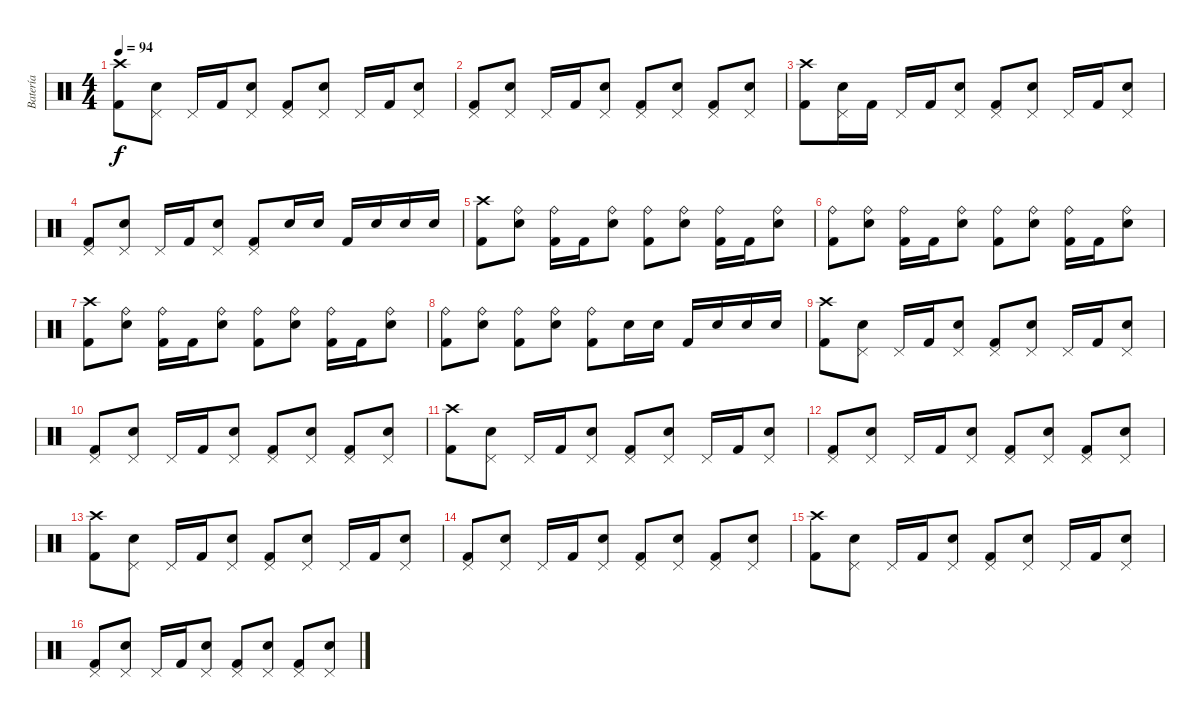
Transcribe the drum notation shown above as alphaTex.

\track ("Batería" "Batería") {instrument percussion}
\staff {score}
\articulation defaults
\ts (4 4)
\tempo 94
\clef neutral
\ks c
("Crash high (hit)" "Kick (hit) 2").8{dy f} ("Pedal Hi-Hat (hit)" "Electric Snare (hit)").8 "Pedal Hi-Hat (hit)".16 "Kick (hit) 2".16 ("Pedal Hi-Hat (hit)" "Electric Snare (hit)").8 ("Pedal Hi-Hat (hit)" "Kick (hit) 2").8 ("Pedal Hi-Hat (hit)" "Electric Snare (hit)").8 "Pedal Hi-Hat (hit)".16 "Kick (hit) 2".16 ("Pedal Hi-Hat (hit)" "Electric Snare (hit)").8 |
("Pedal Hi-Hat (hit)" "Kick (hit) 2").8 ("Pedal Hi-Hat (hit)" "Electric Snare (hit)").8 "Pedal Hi-Hat (hit)".16 "Kick (hit) 2".16 ("Pedal Hi-Hat (hit)" "Electric Snare (hit)").8 ("Pedal Hi-Hat (hit)" "Kick (hit) 2").8 ("Pedal Hi-Hat (hit)" "Electric Snare (hit)").8 ("Pedal Hi-Hat (hit)" "Kick (hit) 2").8 ("Pedal Hi-Hat (hit)" "Electric Snare (hit)").8 |
("Crash high (hit)" "Kick (hit) 2").8 ("Pedal Hi-Hat (hit)" "Electric Snare (hit)").16 "Kick (hit) 2".16 "Pedal Hi-Hat (hit)".16 "Kick (hit) 2".16 ("Pedal Hi-Hat (hit)" "Electric Snare (hit)").8 ("Pedal Hi-Hat (hit)" "Kick (hit) 2").8 ("Pedal Hi-Hat (hit)" "Electric Snare (hit)").8 "Pedal Hi-Hat (hit)".16 "Kick (hit) 2".16 ("Pedal Hi-Hat (hit)" "Electric Snare (hit)").8 |
("Pedal Hi-Hat (hit)" "Kick (hit) 2").8 ("Pedal Hi-Hat (hit)" "Electric Snare (hit)").8 "Pedal Hi-Hat (hit)".16 "Kick (hit) 2".16 ("Pedal Hi-Hat (hit)" "Electric Snare (hit)").8 ("Pedal Hi-Hat (hit)" "Kick (hit) 2").8 "Electric Snare (hit)".16 "Electric Snare (hit)".16 "Kick (hit) 2".16 "Electric Snare (hit)".16 "Electric Snare (hit)".16 "Electric Snare (hit)".16 |
("Crash high (hit)" "Kick (hit) 2").8 ("Ride (bell)" "Electric Snare (hit)").8 ("Ride (bell)" "Kick (hit) 2").16 "Kick (hit) 2".16 ("Ride (bell)" "Electric Snare (hit)").8 ("Ride (bell)" "Kick (hit) 2").8 ("Ride (bell)" "Electric Snare (hit)").8 ("Ride (bell)" "Kick (hit) 2").16 "Kick (hit) 2".16 ("Ride (bell)" "Electric Snare (hit)").8 |
("Ride (bell)" "Kick (hit) 2").8 ("Ride (bell)" "Electric Snare (hit)").8 ("Ride (bell)" "Kick (hit) 2").16 "Kick (hit) 2".16 ("Ride (bell)" "Electric Snare (hit)").8 ("Ride (bell)" "Kick (hit) 2").8 ("Ride (bell)" "Electric Snare (hit)").8 ("Ride (bell)" "Kick (hit) 2").16 "Kick (hit) 2".16 ("Ride (bell)" "Electric Snare (hit)").8 |
("Crash high (hit)" "Kick (hit) 2").8 ("Ride (bell)" "Electric Snare (hit)").8 ("Ride (bell)" "Kick (hit) 2").16 "Kick (hit) 2".16 ("Ride (bell)" "Electric Snare (hit)").8 ("Ride (bell)" "Kick (hit) 2").8 ("Ride (bell)" "Electric Snare (hit)").8 ("Ride (bell)" "Kick (hit) 2").16 "Kick (hit) 2".16 ("Ride (bell)" "Electric Snare (hit)").8 |
("Ride (bell)" "Kick (hit) 2").8 ("Ride (bell)" "Electric Snare (hit)").8 ("Ride (bell)" "Kick (hit) 2").8 ("Ride (bell)" "Electric Snare (hit)").8 ("Ride (bell)" "Kick (hit) 2").8 "Electric Snare (hit)".16 "Electric Snare (hit)".16 "Kick (hit) 2".16 "Electric Snare (hit)".16 "Electric Snare (hit)".16 "Electric Snare (hit)".16 |
("Crash high (hit)" "Kick (hit) 2").8 ("Pedal Hi-Hat (hit)" "Electric Snare (hit)").8 "Pedal Hi-Hat (hit)".16 "Kick (hit) 2".16 ("Pedal Hi-Hat (hit)" "Electric Snare (hit)").8 ("Pedal Hi-Hat (hit)" "Kick (hit) 2").8 ("Pedal Hi-Hat (hit)" "Electric Snare (hit)").8 "Pedal Hi-Hat (hit)".16 "Kick (hit) 2".16 ("Pedal Hi-Hat (hit)" "Electric Snare (hit)").8 |
("Pedal Hi-Hat (hit)" "Kick (hit) 2").8 ("Pedal Hi-Hat (hit)" "Electric Snare (hit)").8 "Pedal Hi-Hat (hit)".16 "Kick (hit) 2".16 ("Pedal Hi-Hat (hit)" "Electric Snare (hit)").8 ("Pedal Hi-Hat (hit)" "Kick (hit) 2").8 ("Pedal Hi-Hat (hit)" "Electric Snare (hit)").8 ("Pedal Hi-Hat (hit)" "Kick (hit) 2").8 ("Pedal Hi-Hat (hit)" "Electric Snare (hit)").8 |
("Crash high (hit)" "Kick (hit) 2").8 ("Pedal Hi-Hat (hit)" "Electric Snare (hit)").8 "Pedal Hi-Hat (hit)".16 "Kick (hit) 2".16 ("Pedal Hi-Hat (hit)" "Electric Snare (hit)").8 ("Pedal Hi-Hat (hit)" "Kick (hit) 2").8 ("Pedal Hi-Hat (hit)" "Electric Snare (hit)").8 "Pedal Hi-Hat (hit)".16 "Kick (hit) 2".16 ("Pedal Hi-Hat (hit)" "Electric Snare (hit)").8 |
("Pedal Hi-Hat (hit)" "Kick (hit) 2").8 ("Pedal Hi-Hat (hit)" "Electric Snare (hit)").8 "Pedal Hi-Hat (hit)".16 "Kick (hit) 2".16 ("Pedal Hi-Hat (hit)" "Electric Snare (hit)").8 ("Pedal Hi-Hat (hit)" "Kick (hit) 2").8 ("Pedal Hi-Hat (hit)" "Electric Snare (hit)").8 ("Pedal Hi-Hat (hit)" "Kick (hit) 2").8 ("Pedal Hi-Hat (hit)" "Electric Snare (hit)").8 |
("Crash high (hit)" "Kick (hit) 2").8 ("Pedal Hi-Hat (hit)" "Electric Snare (hit)").8 "Pedal Hi-Hat (hit)".16 "Kick (hit) 2".16 ("Pedal Hi-Hat (hit)" "Electric Snare (hit)").8 ("Pedal Hi-Hat (hit)" "Kick (hit) 2").8 ("Pedal Hi-Hat (hit)" "Electric Snare (hit)").8 "Pedal Hi-Hat (hit)".16 "Kick (hit) 2".16 ("Pedal Hi-Hat (hit)" "Electric Snare (hit)").8 |
("Pedal Hi-Hat (hit)" "Kick (hit) 2").8 ("Pedal Hi-Hat (hit)" "Electric Snare (hit)").8 "Pedal Hi-Hat (hit)".16 "Kick (hit) 2".16 ("Pedal Hi-Hat (hit)" "Electric Snare (hit)").8 ("Pedal Hi-Hat (hit)" "Kick (hit) 2").8 ("Pedal Hi-Hat (hit)" "Electric Snare (hit)").8 ("Pedal Hi-Hat (hit)" "Kick (hit) 2").8 ("Pedal Hi-Hat (hit)" "Electric Snare (hit)").8 |
("Crash high (hit)" "Kick (hit) 2").8 ("Pedal Hi-Hat (hit)" "Electric Snare (hit)").8 "Pedal Hi-Hat (hit)".16 "Kick (hit) 2".16 ("Pedal Hi-Hat (hit)" "Electric Snare (hit)").8 ("Pedal Hi-Hat (hit)" "Kick (hit) 2").8 ("Pedal Hi-Hat (hit)" "Electric Snare (hit)").8 "Pedal Hi-Hat (hit)".16 "Kick (hit) 2".16 ("Pedal Hi-Hat (hit)" "Electric Snare (hit)").8 |
("Pedal Hi-Hat (hit)" "Kick (hit) 2").8 ("Pedal Hi-Hat (hit)" "Electric Snare (hit)").8 "Pedal Hi-Hat (hit)".16 "Kick (hit) 2".16 ("Pedal Hi-Hat (hit)" "Electric Snare (hit)").8 ("Pedal Hi-Hat (hit)" "Kick (hit) 2").8 ("Pedal Hi-Hat (hit)" "Electric Snare (hit)").8 ("Pedal Hi-Hat (hit)" "Kick (hit) 2").8 ("Pedal Hi-Hat (hit)" "Electric Snare (hit)").8
